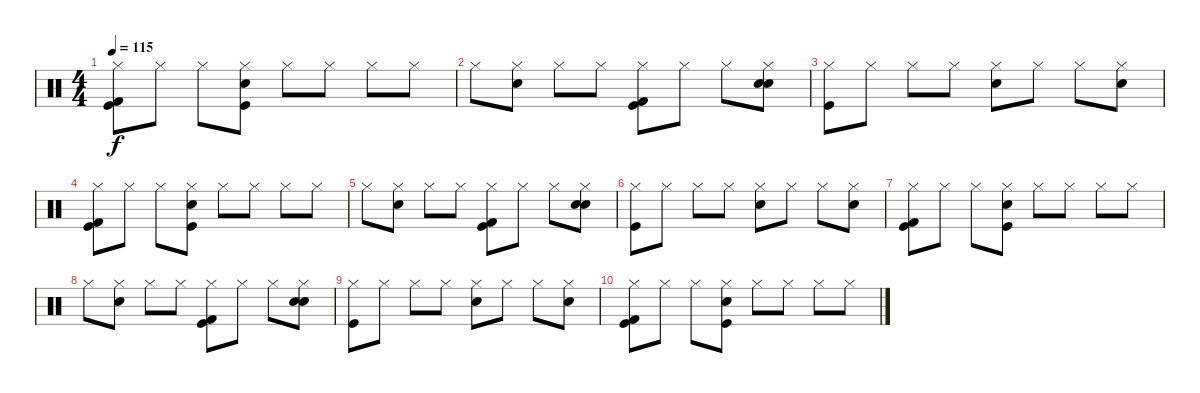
\track "" {instrument percussion}
\staff {score}
\articulation defaults
\ts (4 4)
\tempo 115
\clef neutral
\ks c
("Kick (hit) 2" "Hi-Hat (closed)" "Kick (hit)").8{dy f} "Hi-Hat (closed)".8 "Hi-Hat (closed)".8 ("Electric Snare (hit)" "Hi-Hat (closed)" "Kick (hit)").8 "Hi-Hat (closed)".8 "Hi-Hat (closed)".8 "Hi-Hat (closed)".8 "Hi-Hat (closed)".8 |
"Hi-Hat (closed)".8 ("Hi-Hat (closed)" "Electric Snare (hit)").8 "Hi-Hat (closed)".8 "Hi-Hat (closed)".8 ("Kick (hit) 2" "Hi-Hat (closed)" "Kick (hit)").8 "Hi-Hat (closed)".8 "Hi-Hat (closed)".8 ("Electric Snare (hit)" "Hi-Hat (closed)" "Electric Snare (hit)").8 |
("Hi-Hat (closed)" "Kick (hit)").8 "Hi-Hat (closed)".8 "Hi-Hat (closed)".8 "Hi-Hat (closed)".8 ("Hi-Hat (closed)" "Electric Snare (hit)").8 "Hi-Hat (closed)".8 "Hi-Hat (closed)".8 ("Hi-Hat (closed)" "Electric Snare (hit)").8 |
("Kick (hit) 2" "Hi-Hat (closed)" "Kick (hit)").8 "Hi-Hat (closed)".8 "Hi-Hat (closed)".8 ("Electric Snare (hit)" "Hi-Hat (closed)" "Kick (hit)").8 "Hi-Hat (closed)".8 "Hi-Hat (closed)".8 "Hi-Hat (closed)".8 "Hi-Hat (closed)".8 |
"Hi-Hat (closed)".8 ("Hi-Hat (closed)" "Electric Snare (hit)").8 "Hi-Hat (closed)".8 "Hi-Hat (closed)".8 ("Kick (hit) 2" "Hi-Hat (closed)" "Kick (hit)").8 "Hi-Hat (closed)".8 "Hi-Hat (closed)".8 ("Electric Snare (hit)" "Hi-Hat (closed)" "Electric Snare (hit)").8 |
("Hi-Hat (closed)" "Kick (hit)").8 "Hi-Hat (closed)".8 "Hi-Hat (closed)".8 "Hi-Hat (closed)".8 ("Hi-Hat (closed)" "Electric Snare (hit)").8 "Hi-Hat (closed)".8 "Hi-Hat (closed)".8 ("Hi-Hat (closed)" "Electric Snare (hit)").8 |
("Kick (hit) 2" "Hi-Hat (closed)" "Kick (hit)").8 "Hi-Hat (closed)".8 "Hi-Hat (closed)".8 ("Electric Snare (hit)" "Hi-Hat (closed)" "Kick (hit)").8 "Hi-Hat (closed)".8 "Hi-Hat (closed)".8 "Hi-Hat (closed)".8 "Hi-Hat (closed)".8 |
"Hi-Hat (closed)".8 ("Hi-Hat (closed)" "Electric Snare (hit)").8 "Hi-Hat (closed)".8 "Hi-Hat (closed)".8 ("Kick (hit) 2" "Hi-Hat (closed)" "Kick (hit)").8 "Hi-Hat (closed)".8 "Hi-Hat (closed)".8 ("Electric Snare (hit)" "Hi-Hat (closed)" "Electric Snare (hit)").8 |
("Hi-Hat (closed)" "Kick (hit)").8 "Hi-Hat (closed)".8 "Hi-Hat (closed)".8 "Hi-Hat (closed)".8 ("Hi-Hat (closed)" "Electric Snare (hit)").8 "Hi-Hat (closed)".8 "Hi-Hat (closed)".8 ("Hi-Hat (closed)" "Electric Snare (hit)").8 |
("Kick (hit) 2" "Hi-Hat (closed)" "Kick (hit)").8 "Hi-Hat (closed)".8 "Hi-Hat (closed)".8 ("Electric Snare (hit)" "Hi-Hat (closed)" "Kick (hit)").8 "Hi-Hat (closed)".8 "Hi-Hat (closed)".8 "Hi-Hat (closed)".8 "Hi-Hat (closed)".8
